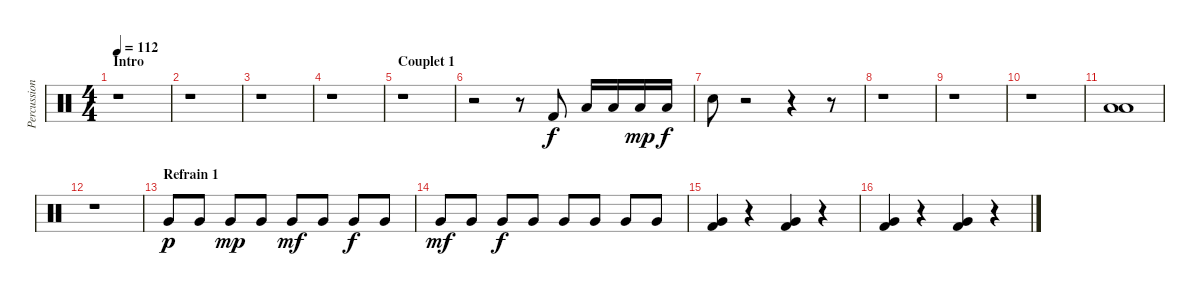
\track ("Percussions" "Percussion") {instrument percussion}
\staff {score}
\articulation defaults
\ts (4 4)
\section ("" "Intro")
\tempo 112
\clef neutral
\ks c
r.1{dy f} |
r.1 |
r.1 |
r.1 |
\section ("" "Couplet 1")
r.1 |
r.2 r.8 "Kick (hit) 2".8 "Low Tom (hit)".16 "Low Tom (hit)".16 "Low Tom (hit)".16{dy mp} "Low Tom (hit)".16{dy f} |
"Electric Snare (hit)".8 r.2 r.4 r.8 |
r.1 |
r.1 |
r.1 |
("Low Tom (hit)" "Low Floor Tom (hit)").1 |
r.1 |
\section ("" "Refrain 1")
"Very Low Tom (hit)".8{dy p} "Very Low Tom (hit)".8 "Very Low Tom (hit)".8{dy mp} "Very Low Tom (hit)".8 "Very Low Tom (hit)".8{dy mf} "Very Low Tom (hit)".8 "Very Low Tom (hit)".8{dy f} "Very Low Tom (hit)".8 |
"Very Low Tom (hit)".8{dy mf} "Very Low Tom (hit)".8 "Very Low Tom (hit)".8{dy f} "Very Low Tom (hit)".8 "Very Low Tom (hit)".8 "Very Low Tom (hit)".8 "Very Low Tom (hit)".8 "Very Low Tom (hit)".8 |
("Very Low Tom (hit)" "Kick (hit) 2").4 r.4 ("Very Low Tom (hit)" "Kick (hit) 2").4 r.4 |
("Very Low Tom (hit)" "Kick (hit) 2").4 r.4 ("Very Low Tom (hit)" "Kick (hit) 2").4 r.4
